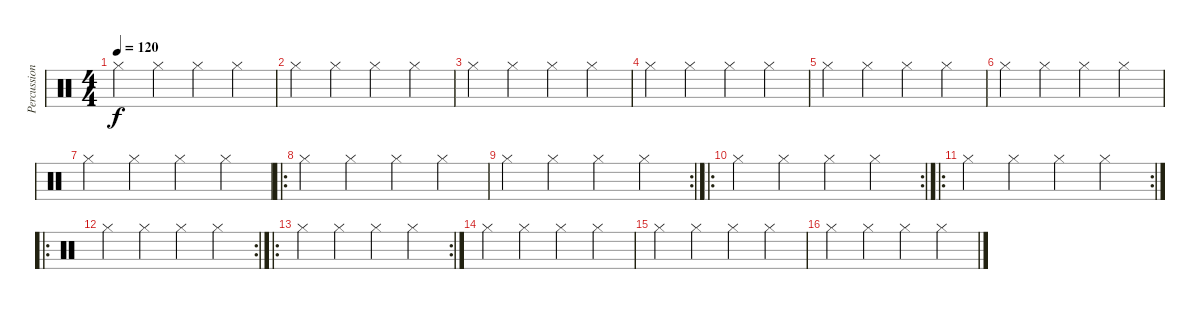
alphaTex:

\track ("Percussioni" "Percussion") {instrument percussion}
\staff {score}
\articulation defaults
\ts (4 4)
\tempo 120
\clef neutral
\ks c "Hi-Hat (closed)".4{dy f} "Hi-Hat (closed)".4 "Hi-Hat (closed)".4 "Hi-Hat (closed)".4
|
"Hi-Hat (closed)".4 "Hi-Hat (closed)".4 "Hi-Hat (closed)".4 "Hi-Hat (closed)".4 |
"Hi-Hat (closed)".4 "Hi-Hat (closed)".4 "Hi-Hat (closed)".4 "Hi-Hat (closed)".4 |
"Hi-Hat (closed)".4 "Hi-Hat (closed)".4 "Hi-Hat (closed)".4 "Hi-Hat (closed)".4 |
"Hi-Hat (closed)".4 "Hi-Hat (closed)".4 "Hi-Hat (closed)".4 "Hi-Hat (closed)".4 |
"Hi-Hat (closed)".4 "Hi-Hat (closed)".4 "Hi-Hat (closed)".4 "Hi-Hat (closed)".4 |
"Hi-Hat (closed)".4 "Hi-Hat (closed)".4 "Hi-Hat (closed)".4 "Hi-Hat (closed)".4 |
\ro "Hi-Hat (closed)".4 "Hi-Hat (closed)".4 "Hi-Hat (closed)".4 "Hi-Hat (closed)".4
|
\rc 2 "Hi-Hat (closed)".4 "Hi-Hat (closed)".4 "Hi-Hat (closed)".4 "Hi-Hat (closed)".4
|
\ro
\rc 2 "Hi-Hat (closed)".4 "Hi-Hat (closed)".4 "Hi-Hat (closed)".4 "Hi-Hat (closed)".4
|
\ro
\rc 2 "Hi-Hat (closed)".4 "Hi-Hat (closed)".4 "Hi-Hat (closed)".4 "Hi-Hat (closed)".4
|
\ro
\rc 2 "Hi-Hat (closed)".4 "Hi-Hat (closed)".4 "Hi-Hat (closed)".4 "Hi-Hat (closed)".4
|
\ro
\rc 2 "Hi-Hat (closed)".4 "Hi-Hat (closed)".4 "Hi-Hat (closed)".4 "Hi-Hat (closed)".4
|
"Hi-Hat (closed)".4 "Hi-Hat (closed)".4 "Hi-Hat (closed)".4 "Hi-Hat (closed)".4 |
"Hi-Hat (closed)".4 "Hi-Hat (closed)".4 "Hi-Hat (closed)".4 "Hi-Hat (closed)".4 |
"Hi-Hat (closed)".4 "Hi-Hat (closed)".4 "Hi-Hat (closed)".4 "Hi-Hat (closed)".4
